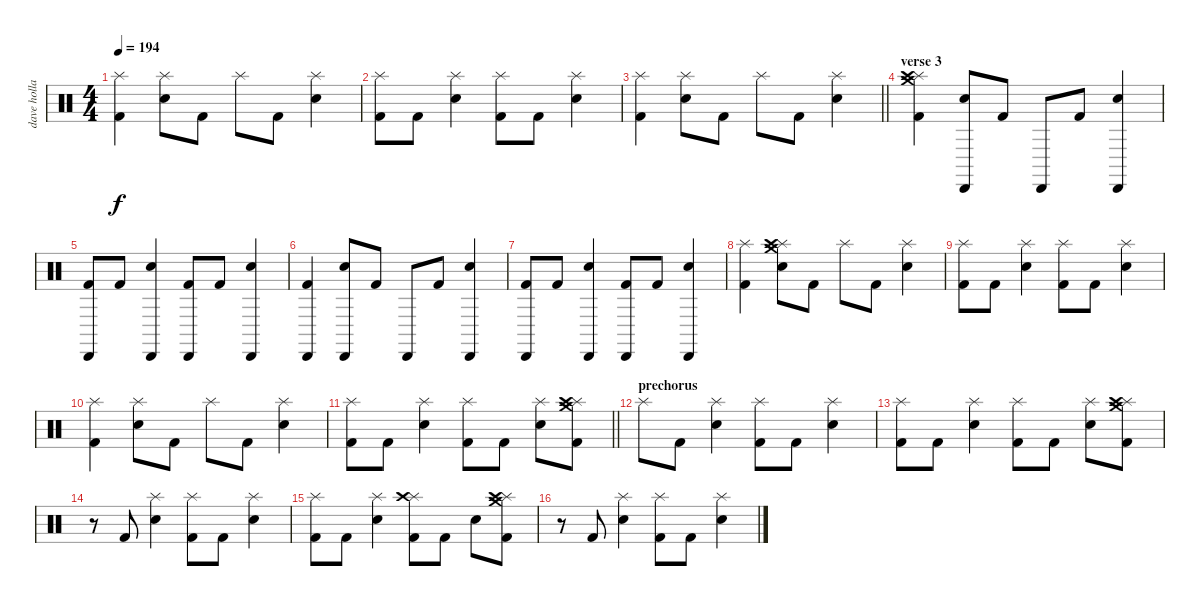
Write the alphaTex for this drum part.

\track ("dave holland" "dave holla") {instrument percussion}
\staff {score}
\articulation defaults
\ts (4 4)
\tempo 194
\clef neutral
\ks c
("Splash (hit)" "Kick (hit) 2").4{dy f} ("Splash (hit)" "Electric Snare (hit)").8 "Kick (hit) 2".8 "Splash (hit)".8 "Kick (hit) 2".8 ("Splash (hit)" "Electric Snare (hit)").4 |
("Splash (hit)" "Kick (hit) 2").8 "Kick (hit) 2".8 ("Splash (hit)" "Electric Snare (hit)").4 ("Splash (hit)" "Kick (hit) 2").8 "Kick (hit) 2".8 ("Splash (hit)" "Electric Snare (hit)").4 |
\barLineRight lightlight
("Splash (hit)" "Kick (hit) 2").4 ("Splash (hit)" "Electric Snare (hit)").8 "Kick (hit) 2".8 "Splash (hit)".8 "Kick (hit) 2".8 ("Splash (hit)" "Electric Snare (hit)").4 |
\section ("" "verse 3")
("Crash medium (hit)" "Splash (hit)" "Crash high (hit)" "Kick (hit) 2").4 ("Cabasa (hit)" "Electric Snare (hit)").8 "Kick (hit) 2".8 "Cabasa (hit)".8 "Kick (hit) 2".8 ("Cabasa (hit)" "Electric Snare (hit)").4 |
("Cabasa (hit)" "Kick (hit) 2").8 "Kick (hit) 2".8 ("Cabasa (hit)" "Electric Snare (hit)").4 ("Cabasa (hit)" "Kick (hit) 2").8 "Kick (hit) 2".8 ("Cabasa (hit)" "Electric Snare (hit)").4 |
("Cabasa (hit)" "Kick (hit) 2").4 ("Cabasa (hit)" "Electric Snare (hit)").8 "Kick (hit) 2".8 "Cabasa (hit)".8 "Kick (hit) 2".8 ("Cabasa (hit)" "Electric Snare (hit)").4 |
("Cabasa (hit)" "Kick (hit) 2").8 "Kick (hit) 2".8 ("Cabasa (hit)" "Electric Snare (hit)").4 ("Cabasa (hit)" "Kick (hit) 2").8 "Kick (hit) 2".8 ("Cabasa (hit)" "Electric Snare (hit)").4 |
("Splash (hit)" "Kick (hit) 2").4 ("Crash medium (hit)" "Splash (hit)" "Crash high (hit)" "Electric Snare (hit)").8 "Kick (hit) 2".8 "Splash (hit)".8 "Kick (hit) 2".8 ("Splash (hit)" "Electric Snare (hit)").4 |
("Splash (hit)" "Kick (hit) 2").8 "Kick (hit) 2".8 ("Splash (hit)" "Electric Snare (hit)").4 ("Splash (hit)" "Kick (hit) 2").8 "Kick (hit) 2".8 ("Splash (hit)" "Electric Snare (hit)").4 |
("Splash (hit)" "Kick (hit) 2").4 ("Splash (hit)" "Electric Snare (hit)").8 "Kick (hit) 2".8 "Splash (hit)".8 "Kick (hit) 2".8 ("Splash (hit)" "Electric Snare (hit)").4 |
\barLineRight lightlight
("Splash (hit)" "Kick (hit) 2").8 "Kick (hit) 2".8 ("Splash (hit)" "Electric Snare (hit)").4 ("Splash (hit)" "Kick (hit) 2").8 "Kick (hit) 2".8 ("Splash (hit)" "Electric Snare (hit)").8 ("Crash medium (hit)" "Splash (hit)" "Crash high (hit)" "Kick (hit) 2").8 |
\section ("" "prechorus")
"Splash (hit)".8 "Kick (hit) 2".8 ("Splash (hit)" "Electric Snare (hit)").4 ("Splash (hit)" "Kick (hit) 2").8 "Kick (hit) 2".8 ("Splash (hit)" "Electric Snare (hit)").4 |
("Splash (hit)" "Kick (hit) 2").8 "Kick (hit) 2".8 ("Splash (hit)" "Electric Snare (hit)").4 ("Splash (hit)" "Kick (hit) 2").8 "Kick (hit) 2".8 ("Splash (hit)" "Electric Snare (hit)").8 ("Crash medium (hit)" "Splash (hit)" "Crash high (hit)" "Kick (hit) 2").8 |
r.8 "Kick (hit) 2".8 ("Splash (hit)" "Electric Snare (hit)").4 ("Splash (hit)" "Kick (hit) 2").8 "Kick (hit) 2".8 ("Splash (hit)" "Electric Snare (hit)").4 |
("Splash (hit)" "Kick (hit) 2").8 "Kick (hit) 2".8 ("Splash (hit)" "Electric Snare (hit)").4 ("Splash (hit)" "Crash high (hit)" "Kick (hit) 2").8 "Kick (hit) 2".8 "Electric Snare (hit)".8 ("Crash medium (hit)" "Splash (hit)" "Crash high (hit)" "Kick (hit) 2").8 |
r.8 "Kick (hit) 2".8 ("Splash (hit)" "Electric Snare (hit)").4 ("Splash (hit)" "Kick (hit) 2").8 "Kick (hit) 2".8 ("Splash (hit)" "Electric Snare (hit)").4
